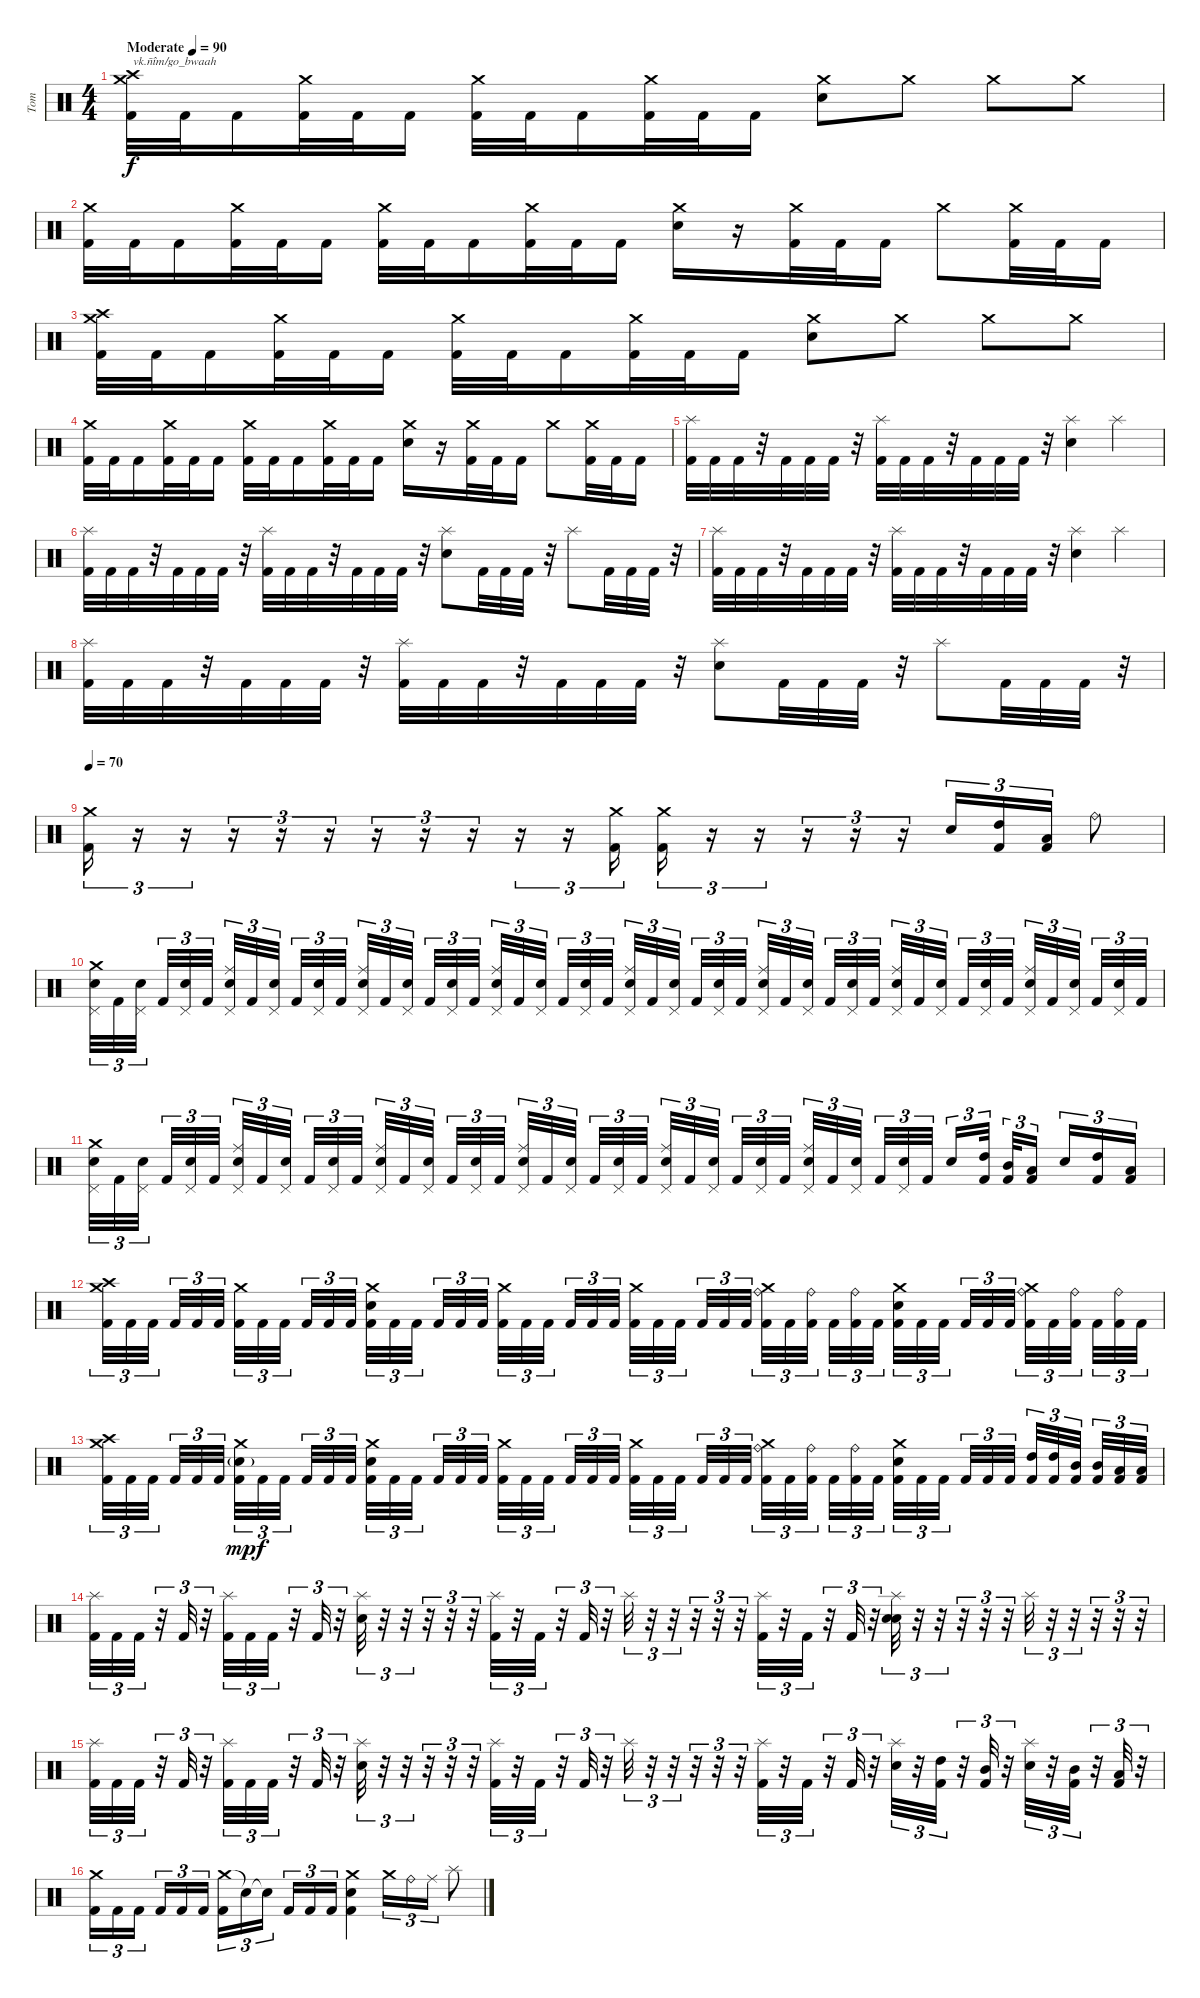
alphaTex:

\track ("Tom" "Tom") {instrument percussion}
\staff {score}
\articulation defaults
\ts (4 4)
\tempo (90 "Moderate")
\clef neutral
\ks c
("Crash high (hit)" "Crash medium (hit)" "Kick (hit) 2").32{txt "vk.ñîm/go_bwaah" dy f} "Kick (hit) 2".32 "Kick (hit) 2".16 ("Crash medium (hit)" "Kick (hit) 2").32 "Kick (hit) 2".32 "Kick (hit) 2".16 ("Crash medium (hit)" "Kick (hit) 2").32 "Kick (hit) 2".32 "Kick (hit) 2".16 ("Crash medium (hit)" "Kick (hit) 2").32 "Kick (hit) 2".32 "Kick (hit) 2".16 ("Crash medium (hit)" "Electric Snare (hit)").8 "Crash medium (hit)".8 "Crash medium (hit)".8 "Crash medium (hit)".8 |
("Crash medium (hit)" "Kick (hit) 2").32 "Kick (hit) 2".32 "Kick (hit) 2".16 ("Crash medium (hit)" "Kick (hit) 2").32 "Kick (hit) 2".32 "Kick (hit) 2".16 ("Crash medium (hit)" "Kick (hit) 2").32 "Kick (hit) 2".32 "Kick (hit) 2".16 ("Crash medium (hit)" "Kick (hit) 2").32 "Kick (hit) 2".32 "Kick (hit) 2".16 ("Crash medium (hit)" "Electric Snare (hit)").16 r.16 ("Crash medium (hit)" "Kick (hit) 2").32 "Kick (hit) 2".32 "Kick (hit) 2".16 "Crash medium (hit)".8 ("Crash medium (hit)" "Kick (hit) 2").32 "Kick (hit) 2".32 "Kick (hit) 2".16 |
("Crash high (hit)" "Crash medium (hit)" "Kick (hit) 2").32 "Kick (hit) 2".32 "Kick (hit) 2".16 ("Crash medium (hit)" "Kick (hit) 2").32 "Kick (hit) 2".32 "Kick (hit) 2".16 ("Crash medium (hit)" "Kick (hit) 2").32 "Kick (hit) 2".32 "Kick (hit) 2".16 ("Crash medium (hit)" "Kick (hit) 2").32 "Kick (hit) 2".32 "Kick (hit) 2".16 ("Crash medium (hit)" "Electric Snare (hit)").8 "Crash medium (hit)".8 "Crash medium (hit)".8 "Crash medium (hit)".8 |
("Crash medium (hit)" "Kick (hit) 2").32 "Kick (hit) 2".32 "Kick (hit) 2".16 ("Crash medium (hit)" "Kick (hit) 2").32 "Kick (hit) 2".32 "Kick (hit) 2".16 ("Crash medium (hit)" "Kick (hit) 2").32 "Kick (hit) 2".32 "Kick (hit) 2".16 ("Crash medium (hit)" "Kick (hit) 2").32 "Kick (hit) 2".32 "Kick (hit) 2".16 ("Crash medium (hit)" "Electric Snare (hit)").16 r.16 ("Crash medium (hit)" "Kick (hit) 2").32 "Kick (hit) 2".32 "Kick (hit) 2".16 "Crash medium (hit)".8 ("Crash medium (hit)" "Kick (hit) 2").32 "Kick (hit) 2".32 "Kick (hit) 2".16 |
("Splash (hit)" "Kick (hit) 2").32 "Kick (hit) 2".32 "Kick (hit) 2".32 r.32 "Kick (hit) 2".32 "Kick (hit) 2".32 "Kick (hit) 2".32 r.32 ("Splash (hit)" "Kick (hit) 2").32 "Kick (hit) 2".32 "Kick (hit) 2".32 r.32 "Kick (hit) 2".32 "Kick (hit) 2".32 "Kick (hit) 2".32 r.32 ("Splash (hit)" "Electric Snare (hit)").4 "Splash (hit)".4 |
("Splash (hit)" "Kick (hit) 2").32 "Kick (hit) 2".32 "Kick (hit) 2".32 r.32 "Kick (hit) 2".32 "Kick (hit) 2".32 "Kick (hit) 2".32 r.32 ("Splash (hit)" "Kick (hit) 2").32 "Kick (hit) 2".32 "Kick (hit) 2".32 r.32 "Kick (hit) 2".32 "Kick (hit) 2".32 "Kick (hit) 2".32 r.32 ("Splash (hit)" "Electric Snare (hit)").8 "Kick (hit) 2".32 "Kick (hit) 2".32 "Kick (hit) 2".32 r.32 "Splash (hit)".8 "Kick (hit) 2".32 "Kick (hit) 2".32 "Kick (hit) 2".32 r.32 |
("Splash (hit)" "Kick (hit) 2").32 "Kick (hit) 2".32 "Kick (hit) 2".32 r.32 "Kick (hit) 2".32 "Kick (hit) 2".32 "Kick (hit) 2".32 r.32 ("Splash (hit)" "Kick (hit) 2").32 "Kick (hit) 2".32 "Kick (hit) 2".32 r.32 "Kick (hit) 2".32 "Kick (hit) 2".32 "Kick (hit) 2".32 r.32 ("Splash (hit)" "Electric Snare (hit)").4 "Splash (hit)".4 |
("Splash (hit)" "Kick (hit) 2").32 "Kick (hit) 2".32 "Kick (hit) 2".32 r.32 "Kick (hit) 2".32 "Kick (hit) 2".32 "Kick (hit) 2".32 r.32 ("Splash (hit)" "Kick (hit) 2").32 "Kick (hit) 2".32 "Kick (hit) 2".32 r.32 "Kick (hit) 2".32 "Kick (hit) 2".32 "Kick (hit) 2".32 r.32 ("Splash (hit)" "Electric Snare (hit)").8 "Kick (hit) 2".32 "Kick (hit) 2".32 "Kick (hit) 2".32 r.32 "Splash (hit)".8 "Kick (hit) 2".32 "Kick (hit) 2".32 "Kick (hit) 2".32 r.32 |
\tempo 70
("Crash medium (hit)" "Kick (hit) 2").16{tu (3 2)} r.16{tu (3 2)} r.16{tu (3 2)} r.16{tu (3 2)} r.16{tu (3 2)} r.16{tu (3 2)} r.16{tu (3 2)} r.16{tu (3 2)} r.16{tu (3 2)} r.16{tu (3 2)} r.16{tu (3 2)} ("Crash medium (hit)" "Kick (hit) 2").16{tu (3 2)} ("Crash medium (hit)" "Kick (hit) 2").16{tu (3 2)} r.16{tu (3 2)} r.16{tu (3 2)} r.16{tu (3 2)} r.16{tu (3 2)} r.16{tu (3 2)} "Electric Snare (hit)".16{tu (3 2)} ("High Tom (hit)" "Kick (hit) 2").16{tu (3 2)} ("Low Tom (hit)" "Kick (hit) 2").16{tu (3 2)} "Ride (bell)".8 |
("Pedal Hi-Hat (hit)" "Crash medium (hit)" "Electric Snare (hit)").32{tu (3 2)} "Kick (hit) 2".32{tu (3 2)} ("Pedal Hi-Hat (hit)" "Electric Snare (hit)").32{tu (3 2) beam splitsecondary} "Kick (hit) 2".32{tu (3 2)} ("Pedal Hi-Hat (hit)" "Electric Snare (hit)").32{tu (3 2)} "Kick (hit) 2".32{tu (3 2) beam splitsecondary} ("Pedal Hi-Hat (hit)" "Ride (middle)" "Electric Snare (hit)").32{tu (3 2)} "Kick (hit) 2".32{tu (3 2)} ("Pedal Hi-Hat (hit)" "Electric Snare (hit)").32{tu (3 2) beam splitsecondary} "Kick (hit) 2".32{tu (3 2)} ("Pedal Hi-Hat (hit)" "Electric Snare (hit)").32{tu (3 2)} "Kick (hit) 2".32{tu (3 2)} ("Pedal Hi-Hat (hit)" "Ride (middle)" "Electric Snare (hit)").32{tu (3 2)} "Kick (hit) 2".32{tu (3 2)} ("Pedal Hi-Hat (hit)" "Electric Snare (hit)").32{tu (3 2) beam splitsecondary} "Kick (hit) 2".32{tu (3 2)} ("Pedal Hi-Hat (hit)" "Electric Snare (hit)").32{tu (3 2)} "Kick (hit) 2".32{tu (3 2) beam splitsecondary} ("Pedal Hi-Hat (hit)" "Ride (middle)" "Electric Snare (hit)").32{tu (3 2)} "Kick (hit) 2".32{tu (3 2)} ("Pedal Hi-Hat (hit)" "Electric Snare (hit)").32{tu (3 2) beam splitsecondary} "Kick (hit) 2".32{tu (3 2)} ("Pedal Hi-Hat (hit)" "Electric Snare (hit)").32{tu (3 2)} "Kick (hit) 2".32{tu (3 2)} ("Pedal Hi-Hat (hit)" "Ride (middle)" "Electric Snare (hit)").32{tu (3 2)} "Kick (hit) 2".32{tu (3 2)} ("Pedal Hi-Hat (hit)" "Electric Snare (hit)").32{tu (3 2) beam splitsecondary} "Kick (hit) 2".32{tu (3 2)} ("Pedal Hi-Hat (hit)" "Electric Snare (hit)").32{tu (3 2)} "Kick (hit) 2".32{tu (3 2) beam splitsecondary} ("Pedal Hi-Hat (hit)" "Ride (middle)" "Electric Snare (hit)").32{tu (3 2)} "Kick (hit) 2".32{tu (3 2)} ("Pedal Hi-Hat (hit)" "Electric Snare (hit)").32{tu (3 2) beam splitsecondary} "Kick (hit) 2".32{tu (3 2)} ("Pedal Hi-Hat (hit)" "Electric Snare (hit)").32{tu (3 2)} "Kick (hit) 2".32{tu (3 2)} ("Pedal Hi-Hat (hit)" "Ride (middle)" "Electric Snare (hit)").32{tu (3 2)} "Kick (hit) 2".32{tu (3 2)} ("Pedal Hi-Hat (hit)" "Electric Snare (hit)").32{tu (3 2) beam splitsecondary} "Kick (hit) 2".32{tu (3 2)} ("Pedal Hi-Hat (hit)" "Electric Snare (hit)").32{tu (3 2)} "Kick (hit) 2".32{tu (3 2) beam splitsecondary} ("Pedal Hi-Hat (hit)" "Ride (middle)" "Electric Snare (hit)").32{tu (3 2)} "Kick (hit) 2".32{tu (3 2)} ("Pedal Hi-Hat (hit)" "Electric Snare (hit)").32{tu (3 2) beam splitsecondary} "Kick (hit) 2".32{tu (3 2)} ("Pedal Hi-Hat (hit)" "Electric Snare (hit)").32{tu (3 2)} "Kick (hit) 2".32{tu (3 2)} |
("Pedal Hi-Hat (hit)" "Crash medium (hit)" "Electric Snare (hit)").32{tu (3 2)} "Kick (hit) 2".32{tu (3 2)} ("Pedal Hi-Hat (hit)" "Electric Snare (hit)").32{tu (3 2) beam splitsecondary} "Kick (hit) 2".32{tu (3 2)} ("Pedal Hi-Hat (hit)" "Electric Snare (hit)").32{tu (3 2)} "Kick (hit) 2".32{tu (3 2) beam splitsecondary} ("Pedal Hi-Hat (hit)" "Ride (middle)" "Electric Snare (hit)").32{tu (3 2)} "Kick (hit) 2".32{tu (3 2)} ("Pedal Hi-Hat (hit)" "Electric Snare (hit)").32{tu (3 2) beam splitsecondary} "Kick (hit) 2".32{tu (3 2)} ("Pedal Hi-Hat (hit)" "Electric Snare (hit)").32{tu (3 2)} "Kick (hit) 2".32{tu (3 2)} ("Pedal Hi-Hat (hit)" "Ride (middle)" "Electric Snare (hit)").32{tu (3 2)} "Kick (hit) 2".32{tu (3 2)} ("Pedal Hi-Hat (hit)" "Electric Snare (hit)").32{tu (3 2) beam splitsecondary} "Kick (hit) 2".32{tu (3 2)} ("Pedal Hi-Hat (hit)" "Electric Snare (hit)").32{tu (3 2)} "Kick (hit) 2".32{tu (3 2) beam splitsecondary} ("Pedal Hi-Hat (hit)" "Ride (middle)" "Electric Snare (hit)").32{tu (3 2)} "Kick (hit) 2".32{tu (3 2)} ("Pedal Hi-Hat (hit)" "Electric Snare (hit)").32{tu (3 2) beam splitsecondary} "Kick (hit) 2".32{tu (3 2)} ("Pedal Hi-Hat (hit)" "Electric Snare (hit)").32{tu (3 2)} "Kick (hit) 2".32{tu (3 2)} ("Pedal Hi-Hat (hit)" "Ride (middle)" "Electric Snare (hit)").32{tu (3 2)} "Kick (hit) 2".32{tu (3 2)} ("Pedal Hi-Hat (hit)" "Electric Snare (hit)").32{tu (3 2) beam splitsecondary} "Kick (hit) 2".32{tu (3 2)} ("Pedal Hi-Hat (hit)" "Electric Snare (hit)").32{tu (3 2)} "Kick (hit) 2".32{tu (3 2) beam splitsecondary} ("Pedal Hi-Hat (hit)" "Ride (middle)" "Electric Snare (hit)").32{tu (3 2)} "Kick (hit) 2".32{tu (3 2)} ("Pedal Hi-Hat (hit)" "Electric Snare (hit)").32{tu (3 2) beam splitsecondary} "Kick (hit) 2".32{tu (3 2)} ("Pedal Hi-Hat (hit)" "Electric Snare (hit)").32{tu (3 2)} "Kick (hit) 2".32{tu (3 2)} "Electric Snare (hit)".16{tu (3 2)} ("High Tom (hit)" "Kick (hit) 2").32{tu (3 2) beam splitsecondary} ("Mid Tom (hit)" "Kick (hit) 2").32{tu (3 2)} ("Low Tom (hit)" "Kick (hit) 2").16{tu (3 2) beam splitsecondary} "Electric Snare (hit)".16{tu (3 2)} ("High Tom (hit)" "Kick (hit) 2").16{tu (3 2)} ("Low Tom (hit)" "Kick (hit) 2").16{tu (3 2)} |
("Crash medium (hit)" "Crash high (hit)" "Kick (hit) 2").32{tu (3 2)} "Kick (hit) 2".32{tu (3 2)} "Kick (hit) 2".32{tu (3 2) beam splitsecondary} "Kick (hit) 2".32{tu (3 2)} "Kick (hit) 2".32{tu (3 2)} "Kick (hit) 2".32{tu (3 2) beam splitsecondary} ("Crash medium (hit)" "Kick (hit) 2").32{tu (3 2)} "Kick (hit) 2".32{tu (3 2)} "Kick (hit) 2".32{tu (3 2) beam splitsecondary} "Kick (hit) 2".32{tu (3 2)} "Kick (hit) 2".32{tu (3 2)} "Kick (hit) 2".32{tu (3 2)} ("Crash medium (hit)" "Electric Snare (hit)" "Kick (hit) 2").32{tu (3 2)} "Kick (hit) 2".32{tu (3 2)} "Kick (hit) 2".32{tu (3 2) beam splitsecondary} "Kick (hit) 2".32{tu (3 2)} "Kick (hit) 2".32{tu (3 2)} "Kick (hit) 2".32{tu (3 2) beam splitsecondary} ("Crash medium (hit)" "Kick (hit) 2").32{tu (3 2)} "Kick (hit) 2".32{tu (3 2)} "Kick (hit) 2".32{tu (3 2) beam splitsecondary} "Kick (hit) 2".32{tu (3 2)} "Kick (hit) 2".32{tu (3 2)} "Kick (hit) 2".32{tu (3 2)} ("Crash medium (hit)" "Kick (hit) 2").32{tu (3 2)} "Kick (hit) 2".32{tu (3 2)} "Kick (hit) 2".32{tu (3 2) beam splitsecondary} "Kick (hit) 2".32{tu (3 2)} "Kick (hit) 2".32{tu (3 2)} "Kick (hit) 2".32{tu (3 2) beam splitsecondary} ("Crash medium (hit)" "Ride (bell)" "Kick (hit) 2").32{tu (3 2)} "Kick (hit) 2".32{tu (3 2)} ("Ride (bell)" "Kick (hit) 2").32{tu (3 2) beam splitsecondary} "Kick (hit) 2".32{tu (3 2)} ("Ride (bell)" "Kick (hit) 2").32{tu (3 2)} "Kick (hit) 2".32{tu (3 2)} ("Crash medium (hit)" "Electric Snare (hit)" "Kick (hit) 2").32{tu (3 2)} "Kick (hit) 2".32{tu (3 2)} "Kick (hit) 2".32{tu (3 2) beam splitsecondary} "Kick (hit) 2".32{tu (3 2)} "Kick (hit) 2".32{tu (3 2)} "Kick (hit) 2".32{tu (3 2) beam splitsecondary} ("Crash medium (hit)" "Ride (bell)" "Kick (hit) 2").32{tu (3 2)} "Kick (hit) 2".32{tu (3 2)} ("Ride (bell)" "Kick (hit) 2").32{tu (3 2) beam splitsecondary} "Kick (hit) 2".32{tu (3 2)} ("Ride (bell)" "Kick (hit) 2").32{tu (3 2)} "Kick (hit) 2".32{tu (3 2)} |
("Crash medium (hit)" "Crash high (hit)" "Kick (hit) 2").32{tu (3 2)} "Kick (hit) 2".32{tu (3 2)} "Kick (hit) 2".32{tu (3 2) beam splitsecondary} "Kick (hit) 2".32{tu (3 2)} "Kick (hit) 2".32{tu (3 2)} "Kick (hit) 2".32{tu (3 2) beam splitsecondary} ("Crash medium (hit)" "Snare (hit) 2"{g} "Kick (hit) 2").32{tu (3 2) dy mp} "Kick (hit) 2".32{tu (3 2) dy f} "Kick (hit) 2".32{tu (3 2) beam splitsecondary} "Kick (hit) 2".32{tu (3 2)} "Kick (hit) 2".32{tu (3 2)} "Kick (hit) 2".32{tu (3 2)} ("Crash medium (hit)" "Electric Snare (hit)" "Kick (hit) 2").32{tu (3 2)} "Kick (hit) 2".32{tu (3 2)} "Kick (hit) 2".32{tu (3 2) beam splitsecondary} "Kick (hit) 2".32{tu (3 2)} "Kick (hit) 2".32{tu (3 2)} "Kick (hit) 2".32{tu (3 2) beam splitsecondary} ("Crash medium (hit)" "Kick (hit) 2").32{tu (3 2)} "Kick (hit) 2".32{tu (3 2)} "Kick (hit) 2".32{tu (3 2) beam splitsecondary} "Kick (hit) 2".32{tu (3 2)} "Kick (hit) 2".32{tu (3 2)} "Kick (hit) 2".32{tu (3 2)} ("Crash medium (hit)" "Kick (hit) 2").32{tu (3 2)} "Kick (hit) 2".32{tu (3 2)} "Kick (hit) 2".32{tu (3 2) beam splitsecondary} "Kick (hit) 2".32{tu (3 2)} "Kick (hit) 2".32{tu (3 2)} "Kick (hit) 2".32{tu (3 2) beam splitsecondary} ("Crash medium (hit)" "Ride (bell)" "Kick (hit) 2").32{tu (3 2)} "Kick (hit) 2".32{tu (3 2)} ("Ride (bell)" "Kick (hit) 2").32{tu (3 2) beam splitsecondary} "Kick (hit) 2".32{tu (3 2)} ("Ride (bell)" "Kick (hit) 2").32{tu (3 2)} "Kick (hit) 2".32{tu (3 2)} ("Crash medium (hit)" "Electric Snare (hit)" "Kick (hit) 2").32{tu (3 2)} "Kick (hit) 2".32{tu (3 2)} "Kick (hit) 2".32{tu (3 2) beam splitsecondary} "Kick (hit) 2".32{tu (3 2)} "Kick (hit) 2".32{tu (3 2)} "Kick (hit) 2".32{tu (3 2) beam splitsecondary} ("High Tom (hit)" "Kick (hit) 2").32{tu (3 2)} ("High Tom (hit)" "Kick (hit) 2").32{tu (3 2)} ("Mid Tom (hit)" "Kick (hit) 2").32{tu (3 2) beam splitsecondary} ("Mid Tom (hit)" "Kick (hit) 2").32{tu (3 2)} ("Low Tom (hit)" "Kick (hit) 2").32{tu (3 2)} ("Low Tom (hit)" "Kick (hit) 2").32{tu (3 2)} |
("Splash (hit)" "Kick (hit) 2").32{tu (3 2)} "Kick (hit) 2".32{tu (3 2)} "Kick (hit) 2".32{tu (3 2)} r.32{tu (3 2)} "Kick (hit) 2".32{tu (3 2)} r.32{tu (3 2)} ("Splash (hit)" "Kick (hit) 2").32{tu (3 2)} "Kick (hit) 2".32{tu (3 2)} "Kick (hit) 2".32{tu (3 2)} r.32{tu (3 2)} "Kick (hit) 2".32{tu (3 2)} r.32{tu (3 2)} ("Splash (hit)" "Electric Snare (hit)").32{tu (3 2)} r.32{tu (3 2)} r.32{tu (3 2)} r.32{tu (3 2)} r.32{tu (3 2)} r.32{tu (3 2)} ("Splash (hit)" "Kick (hit) 2").32{tu (3 2)} r.32{tu (3 2)} "Kick (hit) 2".32{tu (3 2)} r.32{tu (3 2)} "Kick (hit) 2".32{tu (3 2)} r.32{tu (3 2)} "Splash (hit)".32{tu (3 2)} r.32{tu (3 2)} r.32{tu (3 2)} r.32{tu (3 2)} r.32{tu (3 2)} r.32{tu (3 2)} ("Splash (hit)" "Kick (hit) 2").32{tu (3 2)} r.32{tu (3 2)} "Kick (hit) 2".32{tu (3 2)} r.32{tu (3 2)} "Kick (hit) 2".32{tu (3 2)} r.32{tu (3 2)} ("Splash (hit)" "Snare (hit) 2" "Electric Snare (hit)").32{tu (3 2)} r.32{tu (3 2)} r.32{tu (3 2)} r.32{tu (3 2)} r.32{tu (3 2)} r.32{tu (3 2)} "Splash (hit)".32{tu (3 2)} r.32{tu (3 2)} r.32{tu (3 2)} r.32{tu (3 2)} r.32{tu (3 2)} r.32{tu (3 2)} |
("Splash (hit)" "Kick (hit) 2").32{tu (3 2)} "Kick (hit) 2".32{tu (3 2)} "Kick (hit) 2".32{tu (3 2)} r.32{tu (3 2)} "Kick (hit) 2".32{tu (3 2)} r.32{tu (3 2)} ("Splash (hit)" "Kick (hit) 2").32{tu (3 2)} "Kick (hit) 2".32{tu (3 2)} "Kick (hit) 2".32{tu (3 2)} r.32{tu (3 2)} "Kick (hit) 2".32{tu (3 2)} r.32{tu (3 2)} ("Splash (hit)" "Electric Snare (hit)").32{tu (3 2)} r.32{tu (3 2)} r.32{tu (3 2)} r.32{tu (3 2)} r.32{tu (3 2)} r.32{tu (3 2)} ("Splash (hit)" "Kick (hit) 2").32{tu (3 2)} r.32{tu (3 2)} "Kick (hit) 2".32{tu (3 2)} r.32{tu (3 2)} "Kick (hit) 2".32{tu (3 2)} r.32{tu (3 2)} "Splash (hit)".32{tu (3 2)} r.32{tu (3 2)} r.32{tu (3 2)} r.32{tu (3 2)} r.32{tu (3 2)} r.32{tu (3 2)} ("Splash (hit)" "Kick (hit) 2").32{tu (3 2)} r.32{tu (3 2)} "Kick (hit) 2".32{tu (3 2)} r.32{tu (3 2)} "Kick (hit) 2".32{tu (3 2)} r.32{tu (3 2)} ("Splash (hit)" "Electric Snare (hit)").32{tu (3 2)} r.32{tu (3 2)} ("High Tom (hit)" "Kick (hit) 2").32{tu (3 2)} r.32{tu (3 2)} ("Mid Tom (hit)" "Kick (hit) 2").32{tu (3 2)} r.32{tu (3 2)} ("Splash (hit)" "Electric Snare (hit)").32{tu (3 2)} r.32{tu (3 2)} ("Mid Tom (hit)" "Kick (hit) 2").32{tu (3 2)} r.32{tu (3 2)} ("Low Tom (hit)" "Kick (hit) 2").32{tu (3 2)} r.32{tu (3 2)} |
("Crash medium (hit)" "Kick (hit) 2").16{tu (3 2)} "Kick (hit) 2".16{tu (3 2)} "Kick (hit) 2".16{tu (3 2) beam splitsecondary} "Kick (hit) 2".16{tu (3 2)} "Kick (hit) 2".16{tu (3 2)} "Kick (hit) 2".16{tu (3 2)} ("Crash medium (hit)" "Kick (hit) 2").16{tu (3 2)} "Snare (hit)"{t}.16{tu (3 2)} "Snare (hit)"{t}.16{tu (3 2) beam splitsecondary} "Kick (hit) 2".16{tu (3 2)} "Kick (hit) 2".16{tu (3 2)} "Kick (hit) 2".16{tu (3 2)} ("Crash medium (hit)" "Electric Snare (hit)" "Kick (hit) 2").4 "Crash medium (hit)".16{tu (3 2)} "Ride (bell)".16{tu (3 2)} "Ride (middle)".16{tu (3 2)} "Splash (hit)".8
